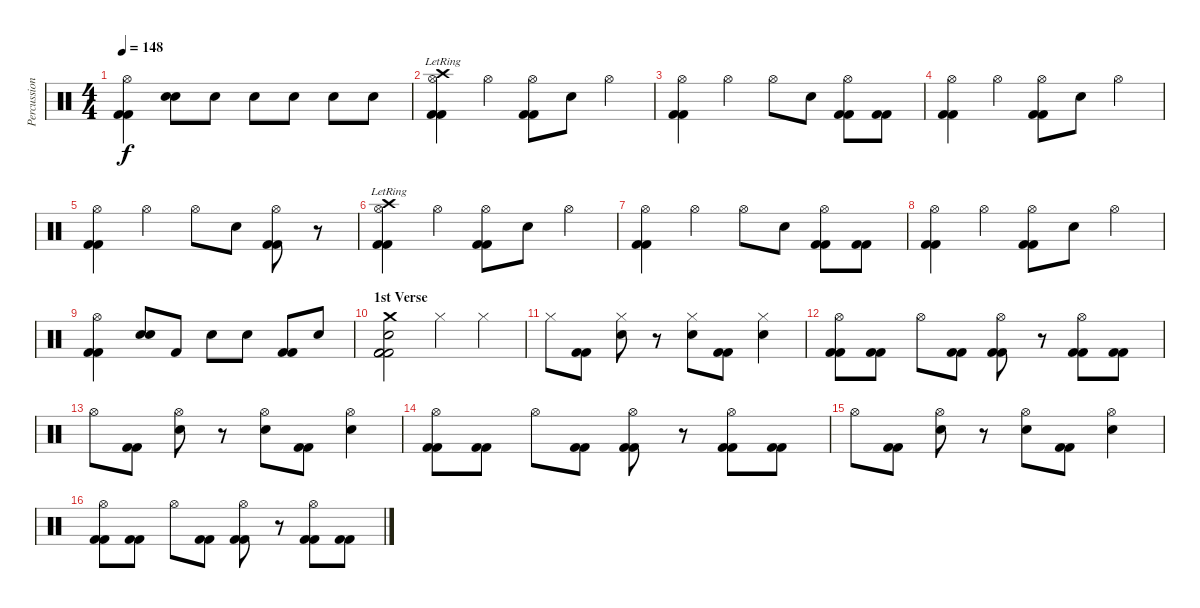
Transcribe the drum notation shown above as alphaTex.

\track ("Percussion" "Percussion") {instrument percussion}
\staff {score}
\articulation defaults
\ts (4 4)
\tempo 148
\clef neutral
\ks c
("Hi-Hat (open)" "Kick (hit) 2" "Kick (hit) 2").4{dy f} ("Electric Snare (hit)" "Electric Snare (hit)").8{bd 240} "Electric Snare (hit)".8 "Electric Snare (hit)".8 "Electric Snare (hit)".8 "Electric Snare (hit)".8 "Electric Snare (hit)".8 |
("Crash high (hit)"{lr} "Hi-Hat (open)" "Kick (hit) 2" "Kick (hit) 2").4 "Hi-Hat (open)".4 ("Hi-Hat (open)" "Kick (hit) 2" "Kick (hit) 2").8 "Snare (hit) 2".8 "Hi-Hat (open)".4 |
("Hi-Hat (open)" "Kick (hit) 2" "Kick (hit) 2").4 "Hi-Hat (open)".4 "Hi-Hat (open)".8 "Snare (hit) 2".8 ("Hi-Hat (open)" "Kick (hit) 2" "Kick (hit) 2").8 ("Kick (hit) 2" "Kick (hit) 2").8 |
("Hi-Hat (open)" "Kick (hit) 2" "Kick (hit) 2").4 "Hi-Hat (open)".4 ("Hi-Hat (open)" "Kick (hit) 2" "Kick (hit) 2").8 "Snare (hit) 2".8 "Hi-Hat (open)".4 |
("Hi-Hat (open)" "Kick (hit) 2" "Kick (hit) 2").4 "Hi-Hat (open)".4 "Hi-Hat (open)".8 "Snare (hit) 2".8 ("Hi-Hat (open)" "Kick (hit) 2" "Kick (hit) 2").8 r.8 |
("Crash high (hit)"{lr} "Hi-Hat (open)" "Kick (hit) 2" "Kick (hit) 2").4 "Hi-Hat (open)".4 ("Hi-Hat (open)" "Kick (hit) 2" "Kick (hit) 2").8 "Snare (hit) 2".8 "Hi-Hat (open)".4 |
("Hi-Hat (open)" "Kick (hit) 2" "Kick (hit) 2").4 "Hi-Hat (open)".4 "Hi-Hat (open)".8 "Snare (hit) 2".8 ("Hi-Hat (open)" "Kick (hit) 2" "Kick (hit) 2").8 ("Kick (hit) 2" "Kick (hit) 2").8 |
("Hi-Hat (open)" "Kick (hit) 2" "Kick (hit) 2").4 "Hi-Hat (open)".4 ("Hi-Hat (open)" "Kick (hit) 2" "Kick (hit) 2").8 "Snare (hit) 2".8 "Hi-Hat (open)".4 |
("Hi-Hat (open)" "Kick (hit) 2" "Kick (hit) 2").4 ("Electric Snare (hit)" "Electric Snare (hit)").8{bd 240} "Kick (hit) 2".8 "Electric Snare (hit)".8 "Electric Snare (hit)".8 ("Kick (hit) 2" "Kick (hit) 2").8 "Electric Snare (hit)".8 |
\section ("" "1st Verse")
("Crash medium (hit)" "Snare (hit) 2" "Kick (hit) 2" "Kick (hit) 2" "Kick (hit) 2").2 "Hi-Hat (closed)".4 "Hi-Hat (closed)".4 |
"Hi-Hat (closed)".8 ("Kick (hit) 2" "Kick (hit) 2").8 ("Hi-Hat (closed)" "Electric Snare (hit)").8 r.8 ("Hi-Hat (closed)" "Electric Snare (hit)").8 ("Kick (hit) 2" "Kick (hit) 2").8 ("Hi-Hat (closed)" "Electric Snare (hit)").4 |
("Hi-Hat (open)" "Kick (hit) 2" "Kick (hit) 2").8 ("Kick (hit) 2" "Kick (hit) 2").8 "Hi-Hat (open)".8 ("Kick (hit) 2" "Kick (hit) 2").8 ("Hi-Hat (open)" "Kick (hit) 2" "Kick (hit) 2").8 r.8 ("Hi-Hat (open)" "Kick (hit) 2" "Kick (hit) 2").8 ("Kick (hit) 2" "Kick (hit) 2").8 |
"Hi-Hat (open)".8 ("Kick (hit) 2" "Kick (hit) 2").8 ("Hi-Hat (open)" "Electric Snare (hit)").8 r.8 ("Hi-Hat (open)" "Electric Snare (hit)").8 ("Kick (hit) 2" "Kick (hit) 2").8 ("Hi-Hat (open)" "Electric Snare (hit)").4 |
\section ("" "")
("Hi-Hat (open)" "Kick (hit) 2" "Kick (hit) 2").8 ("Kick (hit) 2" "Kick (hit) 2").8 "Hi-Hat (open)".8 ("Kick (hit) 2" "Kick (hit) 2").8 ("Hi-Hat (open)" "Kick (hit) 2" "Kick (hit) 2").8 r.8 ("Hi-Hat (open)" "Kick (hit) 2" "Kick (hit) 2").8 ("Kick (hit) 2" "Kick (hit) 2").8 |
"Hi-Hat (open)".8 ("Kick (hit) 2" "Kick (hit) 2").8 ("Hi-Hat (open)" "Electric Snare (hit)").8 r.8 ("Hi-Hat (open)" "Electric Snare (hit)").8 ("Kick (hit) 2" "Kick (hit) 2").8 ("Hi-Hat (open)" "Electric Snare (hit)").4 |
("Hi-Hat (open)" "Kick (hit) 2" "Kick (hit) 2").8 ("Kick (hit) 2" "Kick (hit) 2").8 "Hi-Hat (open)".8 ("Kick (hit) 2" "Kick (hit) 2").8 ("Hi-Hat (open)" "Kick (hit) 2" "Kick (hit) 2").8 r.8 ("Hi-Hat (open)" "Kick (hit) 2" "Kick (hit) 2").8 ("Kick (hit) 2" "Kick (hit) 2").8
